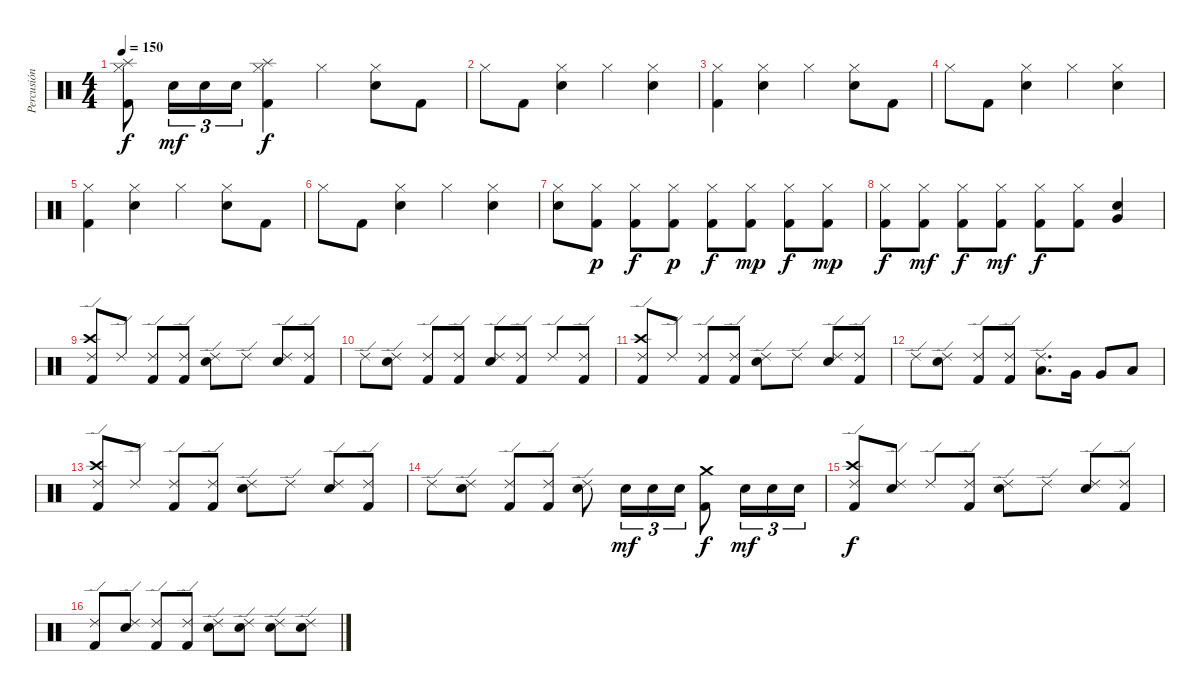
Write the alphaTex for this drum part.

\track ("Percusión" "Percusión") {instrument percussion}
\staff {score}
\articulation defaults
\ts (4 4)
\tempo 150
\clef neutral
\ks c
("Splash (hit)" "Hi-Hat (closed)" "Kick (hit) 2").8{dy f} "Snare (hit) 2".16{tu (3 2) dy mf} "Snare (hit) 2".16{tu (3 2)} "Snare (hit) 2".16{tu (3 2)} ("Splash (hit)" "Hi-Hat (closed)" "Kick (hit) 2").4{dy f} "Hi-Hat (closed)".4 ("Hi-Hat (closed)" "Snare (hit) 2").8 "Kick (hit) 2".8 |
"Hi-Hat (closed)".8 "Kick (hit) 2".8 ("Hi-Hat (closed)" "Snare (hit) 2").4 "Hi-Hat (closed)".4 ("Hi-Hat (closed)" "Snare (hit) 2").4 |
("Hi-Hat (closed)" "Kick (hit) 2").4 ("Hi-Hat (closed)" "Snare (hit) 2").4 "Hi-Hat (closed)".4 ("Hi-Hat (closed)" "Snare (hit) 2").8 "Kick (hit) 2".8 |
"Hi-Hat (closed)".8 "Kick (hit) 2".8 ("Hi-Hat (closed)" "Snare (hit) 2").4 "Hi-Hat (closed)".4 ("Hi-Hat (closed)" "Snare (hit) 2").4 |
("Hi-Hat (closed)" "Kick (hit) 2").4 ("Hi-Hat (closed)" "Snare (hit) 2").4 "Hi-Hat (closed)".4 ("Hi-Hat (closed)" "Snare (hit) 2").8 "Kick (hit) 2".8 |
"Hi-Hat (closed)".8 "Kick (hit) 2".8 ("Hi-Hat (closed)" "Snare (hit) 2").4 "Hi-Hat (closed)".4 ("Hi-Hat (closed)" "Snare (hit) 2").4 |
("Hi-Hat (closed)" "Snare (hit) 2").8 ("Hi-Hat (closed)" "Kick (hit) 2").8{dy p} ("Hi-Hat (closed)" "Kick (hit) 2").8{dy f} ("Hi-Hat (closed)" "Kick (hit) 2").8{dy p} ("Hi-Hat (closed)" "Kick (hit) 2").8{dy f} ("Hi-Hat (closed)" "Kick (hit) 2").8{dy mp} ("Hi-Hat (closed)" "Kick (hit) 2").8{dy f} ("Hi-Hat (closed)" "Kick (hit) 2").8{dy mp} |
("Hi-Hat (closed)" "Kick (hit) 2").8{dy f} ("Hi-Hat (closed)" "Kick (hit) 2").8{dy mf} ("Hi-Hat (closed)" "Kick (hit) 2").8{dy f} ("Hi-Hat (closed)" "Kick (hit) 2").8{dy mf} ("Hi-Hat (closed)" "Kick (hit) 2").8{dy f} ("Hi-Hat (closed)" "Kick (hit) 2").8 ("Very Low Tom (hit)" "Snare (hit) 2").4 |
("Crash high (hit)" "Ride (edge) 2" "Kick (hit) 2").8 "Ride (edge) 2".8 ("Ride (edge) 2" "Kick (hit) 2").8 ("Ride (edge) 2" "Kick (hit) 2").8 ("Ride (edge) 2" "Snare (hit) 2").8 "Ride (edge) 2".8 ("Ride (edge) 2" "Snare (hit) 2").8 ("Ride (edge) 2" "Kick (hit) 2").8 |
"Ride (edge) 2".8 ("Ride (edge) 2" "Snare (hit) 2").8 ("Ride (edge) 2" "Kick (hit) 2").8 ("Ride (edge) 2" "Kick (hit) 2").8 ("Ride (edge) 2" "Snare (hit) 2").8 ("Ride (edge) 2" "Kick (hit) 2").8 "Ride (edge) 2".8 ("Ride (edge) 2" "Kick (hit) 2").8 |
("Crash high (hit)" "Ride (edge) 2" "Kick (hit) 2").8 "Ride (edge) 2".8 ("Ride (edge) 2" "Kick (hit) 2").8 ("Ride (edge) 2" "Kick (hit) 2").8 ("Ride (edge) 2" "Snare (hit) 2").8 "Ride (edge) 2".8 ("Ride (edge) 2" "Snare (hit) 2").8 ("Ride (edge) 2" "Kick (hit) 2").8 |
"Ride (edge) 2".8 ("Ride (edge) 2" "Snare (hit) 2").8 ("Ride (edge) 2" "Kick (hit) 2").8 ("Ride (edge) 2" "Kick (hit) 2").8 ("Ride (edge) 2" "Low Tom (hit)").8{d} "Very Low Tom (hit)".16 "Very Low Tom (hit)".8 "Low Floor Tom (hit)".8 |
("Crash high (hit)" "Ride (edge) 2" "Kick (hit) 2").8 "Ride (edge) 2".8 ("Ride (edge) 2" "Kick (hit) 2").8 ("Ride (edge) 2" "Kick (hit) 2").8 ("Ride (edge) 2" "Snare (hit) 2").8 "Ride (edge) 2".8 ("Ride (edge) 2" "Snare (hit) 2").8 ("Ride (edge) 2" "Kick (hit) 2").8 |
"Ride (edge) 2".8 ("Ride (edge) 2" "Snare (hit) 2").8 ("Ride (edge) 2" "Kick (hit) 2").8 ("Ride (edge) 2" "Kick (hit) 2").8 ("Ride (edge) 2" "Snare (hit) 2").8 "Snare (hit) 2".16{tu (3 2) dy mf} "Snare (hit) 2".16{tu (3 2)} "Snare (hit) 2".16{tu (3 2)} ("Crash medium (hit)" "Kick (hit) 2").8{dy f} "Snare (hit) 2".16{tu (3 2) dy mf} "Snare (hit) 2".16{tu (3 2)} "Snare (hit) 2".16{tu (3 2)} |
("Crash high (hit)" "Ride (edge) 2" "Kick (hit) 2").8{dy f} ("Ride (edge) 2" "Snare (hit) 2").8 "Ride (edge) 2".8 ("Ride (edge) 2" "Kick (hit) 2").8 ("Ride (edge) 2" "Snare (hit) 2").8 "Ride (edge) 2".8 ("Ride (edge) 2" "Snare (hit) 2").8 ("Ride (edge) 2" "Kick (hit) 2").8 |
("Ride (edge) 2" "Kick (hit) 2").8 ("Ride (edge) 2" "Snare (hit) 2").8 ("Ride (edge) 2" "Kick (hit) 2").8 ("Ride (edge) 2" "Kick (hit) 2").8 ("Ride (edge) 2" "Snare (hit) 2").8 ("Ride (edge) 2" "Snare (hit) 2").8 ("Ride (edge) 2" "Snare (hit) 2").8 ("Ride (edge) 2" "Snare (hit) 2").8
